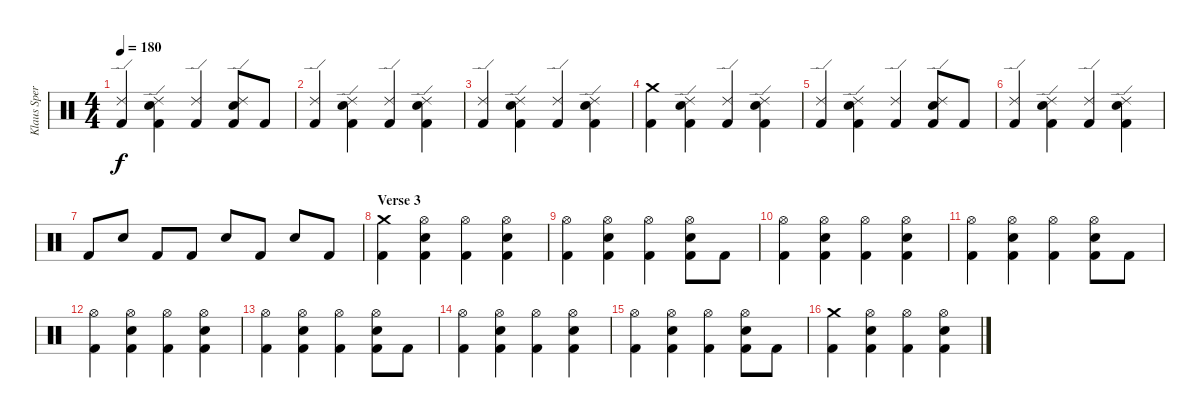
\track ("Klaus Sperling Drums" "Klaus Sper") {instrument percussion}
\staff {score}
\articulation defaults
\ts (4 4)
\tempo 180
\clef neutral
\ks c
("Ride (edge) 2" "Kick (hit) 2").4{dy f} ("Ride (edge) 2" "Electric Snare (hit)" "Kick (hit) 2").4 ("Ride (edge) 2" "Kick (hit) 2").4 ("Ride (edge) 2" "Electric Snare (hit)" "Kick (hit) 2").8 "Kick (hit) 2".8 |
("Ride (edge) 2" "Kick (hit) 2").4 ("Ride (edge) 2" "Electric Snare (hit)" "Kick (hit) 2").4 ("Ride (edge) 2" "Kick (hit) 2").4 ("Ride (edge) 2" "Electric Snare (hit)" "Kick (hit) 2").4 |
("Ride (edge) 2" "Kick (hit) 2").4 ("Ride (edge) 2" "Electric Snare (hit)" "Kick (hit) 2").4 ("Ride (edge) 2" "Kick (hit) 2").4 ("Ride (edge) 2" "Electric Snare (hit)" "Kick (hit) 2").4 |
("Crash medium (hit)" "Kick (hit) 2").4 ("Ride (edge) 2" "Electric Snare (hit)" "Kick (hit) 2").4 ("Ride (edge) 2" "Kick (hit) 2").4 ("Ride (edge) 2" "Electric Snare (hit)" "Kick (hit) 2").4 |
("Ride (edge) 2" "Kick (hit) 2").4 ("Ride (edge) 2" "Electric Snare (hit)" "Kick (hit) 2").4 ("Ride (edge) 2" "Kick (hit) 2").4 ("Ride (edge) 2" "Electric Snare (hit)" "Kick (hit) 2").8 "Kick (hit) 2".8 |
("Ride (edge) 2" "Kick (hit) 2").4 ("Ride (edge) 2" "Electric Snare (hit)" "Kick (hit) 2").4 ("Ride (edge) 2" "Kick (hit) 2").4 ("Ride (edge) 2" "Electric Snare (hit)" "Kick (hit) 2").4 |
"Kick (hit) 2".8 "Electric Snare (hit)".8 "Kick (hit) 2".8 "Kick (hit) 2".8 "Electric Snare (hit)".8 "Kick (hit) 2".8 "Electric Snare (hit)".8 "Kick (hit) 2".8 |
\section ("" "Verse 3")
("Crash medium (hit)" "Kick (hit) 2").4 ("Hi-Hat (open)" "Electric Snare (hit)" "Kick (hit) 2").4 ("Hi-Hat (open)" "Kick (hit) 2").4 ("Hi-Hat (open)" "Electric Snare (hit)" "Kick (hit) 2").4 |
("Hi-Hat (open)" "Kick (hit) 2").4 ("Hi-Hat (open)" "Electric Snare (hit)" "Kick (hit) 2").4 ("Hi-Hat (open)" "Kick (hit) 2").4 ("Hi-Hat (open)" "Electric Snare (hit)" "Kick (hit) 2").8 "Kick (hit) 2".8 |
("Hi-Hat (open)" "Kick (hit) 2").4 ("Hi-Hat (open)" "Electric Snare (hit)" "Kick (hit) 2").4 ("Hi-Hat (open)" "Kick (hit) 2").4 ("Hi-Hat (open)" "Electric Snare (hit)" "Kick (hit) 2").4 |
("Hi-Hat (open)" "Kick (hit) 2").4 ("Hi-Hat (open)" "Electric Snare (hit)" "Kick (hit) 2").4 ("Hi-Hat (open)" "Kick (hit) 2").4 ("Hi-Hat (open)" "Electric Snare (hit)" "Kick (hit) 2").8 "Kick (hit) 2".8 |
("Hi-Hat (open)" "Kick (hit) 2").4 ("Hi-Hat (open)" "Electric Snare (hit)" "Kick (hit) 2").4 ("Hi-Hat (open)" "Kick (hit) 2").4 ("Hi-Hat (open)" "Electric Snare (hit)" "Kick (hit) 2").4 |
("Hi-Hat (open)" "Kick (hit) 2").4 ("Hi-Hat (open)" "Electric Snare (hit)" "Kick (hit) 2").4 ("Hi-Hat (open)" "Kick (hit) 2").4 ("Hi-Hat (open)" "Electric Snare (hit)" "Kick (hit) 2").8 "Kick (hit) 2".8 |
("Hi-Hat (open)" "Kick (hit) 2").4 ("Hi-Hat (open)" "Electric Snare (hit)" "Kick (hit) 2").4 ("Hi-Hat (open)" "Kick (hit) 2").4 ("Hi-Hat (open)" "Electric Snare (hit)" "Kick (hit) 2").4 |
("Hi-Hat (open)" "Kick (hit) 2").4 ("Hi-Hat (open)" "Electric Snare (hit)" "Kick (hit) 2").4 ("Hi-Hat (open)" "Kick (hit) 2").4 ("Hi-Hat (open)" "Electric Snare (hit)" "Kick (hit) 2").8 "Kick (hit) 2".8 |
("Crash medium (hit)" "Kick (hit) 2").4 ("Hi-Hat (open)" "Electric Snare (hit)" "Kick (hit) 2").4 ("Hi-Hat (open)" "Kick (hit) 2").4 ("Hi-Hat (open)" "Electric Snare (hit)" "Kick (hit) 2").4
